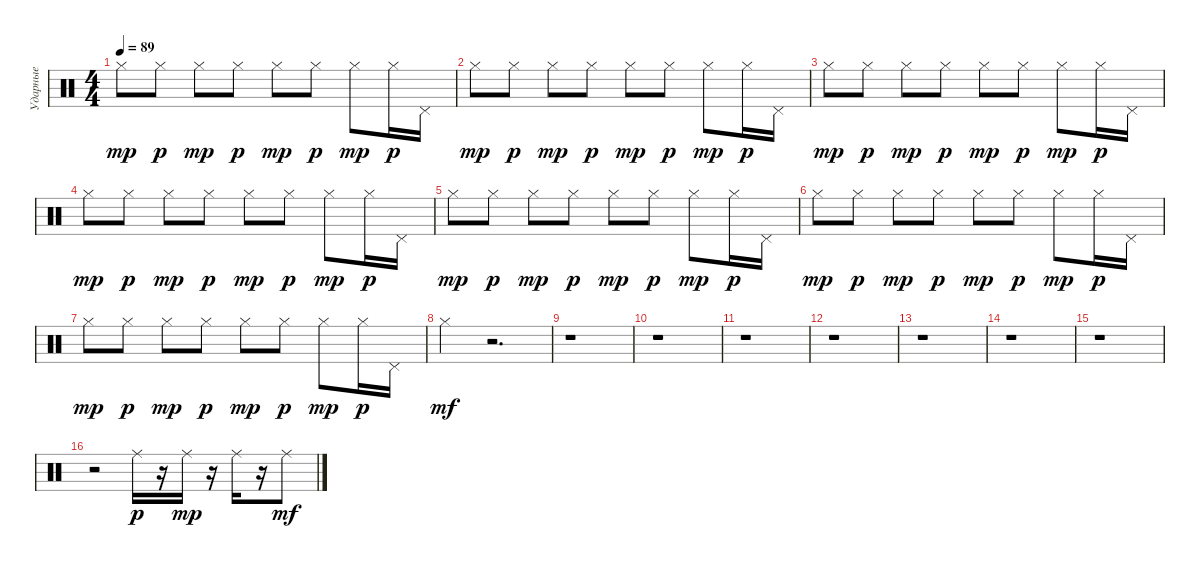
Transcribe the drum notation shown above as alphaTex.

\track ("Ударные" "Ударные") {instrument percussion}
\staff {score}
\articulation defaults
\ts (4 4)
\tempo 89
\clef neutral
\ks c "Hi-Hat (closed)".8{dy mp} "Hi-Hat (closed)".8{dy p} "Hi-Hat (closed)".8{dy mp} "Hi-Hat (closed)".8{dy p} "Hi-Hat (closed)".8{dy mp} "Hi-Hat (closed)".8{dy p} "Hi-Hat (closed)".8{dy mp} "Hi-Hat (closed)".16{dy p} "Pedal Hi-Hat (hit)".16
|
"Hi-Hat (closed)".8{dy mp} "Hi-Hat (closed)".8{dy p} "Hi-Hat (closed)".8{dy mp} "Hi-Hat (closed)".8{dy p} "Hi-Hat (closed)".8{dy mp} "Hi-Hat (closed)".8{dy p} "Hi-Hat (closed)".8{dy mp} "Hi-Hat (closed)".16{dy p} "Pedal Hi-Hat (hit)".16 |
"Hi-Hat (closed)".8{dy mp} "Hi-Hat (closed)".8{dy p} "Hi-Hat (closed)".8{dy mp} "Hi-Hat (closed)".8{dy p} "Hi-Hat (closed)".8{dy mp} "Hi-Hat (closed)".8{dy p} "Hi-Hat (closed)".8{dy mp} "Hi-Hat (closed)".16{dy p} "Pedal Hi-Hat (hit)".16 |
"Hi-Hat (closed)".8{dy mp} "Hi-Hat (closed)".8{dy p} "Hi-Hat (closed)".8{dy mp} "Hi-Hat (closed)".8{dy p} "Hi-Hat (closed)".8{dy mp} "Hi-Hat (closed)".8{dy p} "Hi-Hat (closed)".8{dy mp} "Hi-Hat (closed)".16{dy p} "Pedal Hi-Hat (hit)".16 |
"Hi-Hat (closed)".8{dy mp} "Hi-Hat (closed)".8{dy p} "Hi-Hat (closed)".8{dy mp} "Hi-Hat (closed)".8{dy p} "Hi-Hat (closed)".8{dy mp} "Hi-Hat (closed)".8{dy p} "Hi-Hat (closed)".8{dy mp} "Hi-Hat (closed)".16{dy p} "Pedal Hi-Hat (hit)".16 |
"Hi-Hat (closed)".8{dy mp} "Hi-Hat (closed)".8{dy p} "Hi-Hat (closed)".8{dy mp} "Hi-Hat (closed)".8{dy p} "Hi-Hat (closed)".8{dy mp} "Hi-Hat (closed)".8{dy p} "Hi-Hat (closed)".8{dy mp} "Hi-Hat (closed)".16{dy p} "Pedal Hi-Hat (hit)".16 |
"Hi-Hat (closed)".8{dy mp} "Hi-Hat (closed)".8{dy p} "Hi-Hat (closed)".8{dy mp} "Hi-Hat (closed)".8{dy p} "Hi-Hat (closed)".8{dy mp} "Hi-Hat (closed)".8{dy p} "Hi-Hat (closed)".8{dy mp} "Hi-Hat (closed)".16{dy p} "Pedal Hi-Hat (hit)".16 |
"Hi-Hat (closed)".4{dy mf} r.2{d} |
r.1 |
r.1 |
r.1 |
r.1 |
r.1 |
r.1 |
r.1 |
r.2 "Ride (middle)".16{dy p} r.16 "Ride (middle)".16{dy mp} r.16 "Ride (middle)".16 r.16 "Ride (middle)".8{dy mf}
